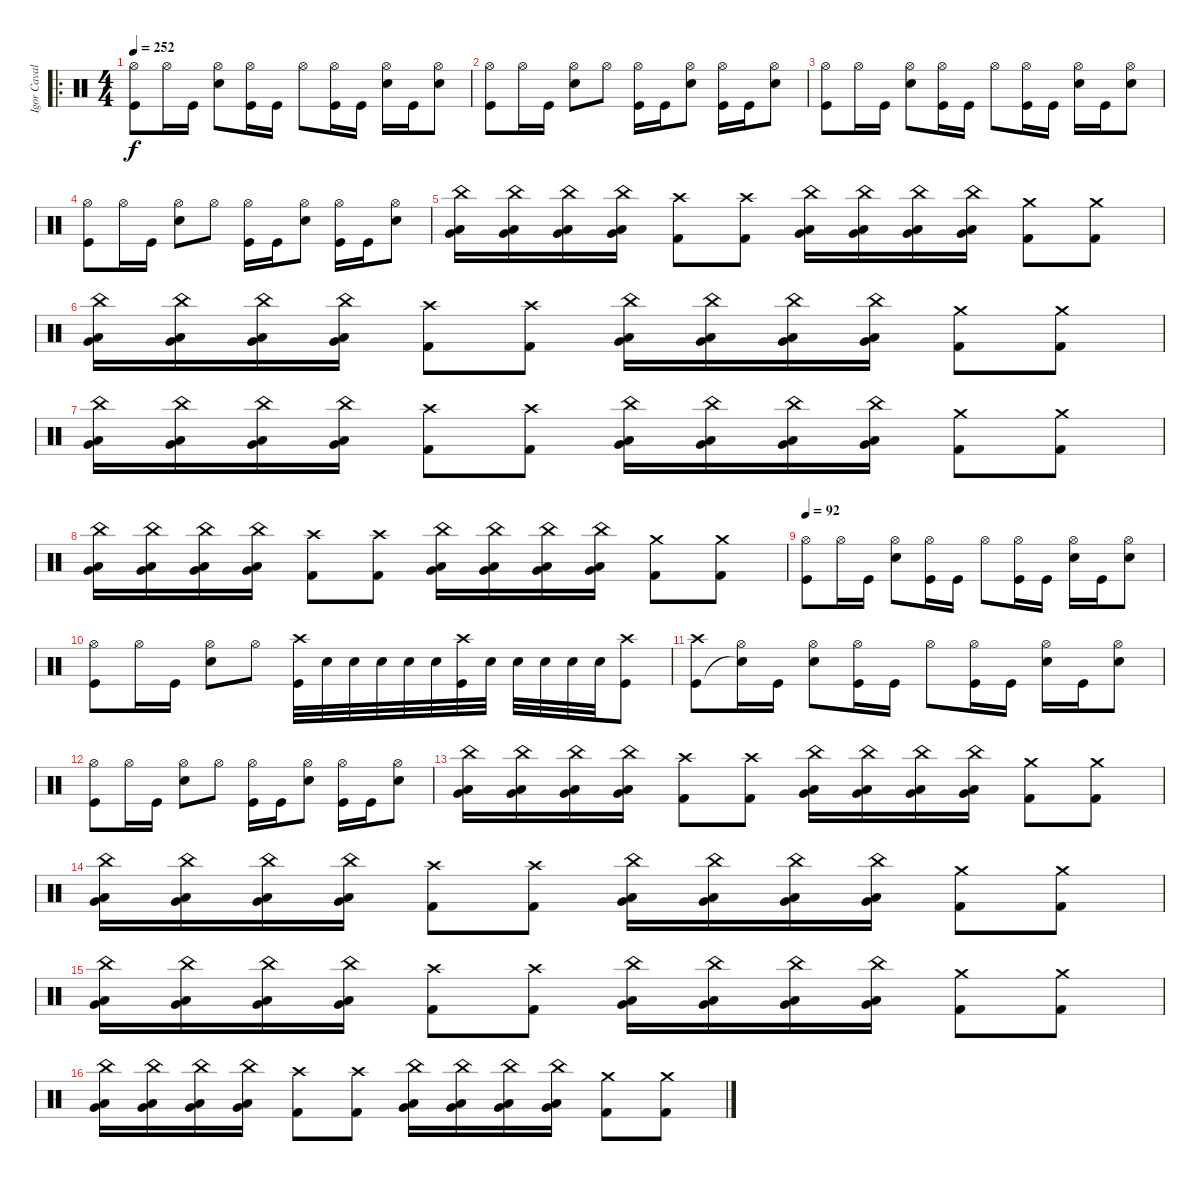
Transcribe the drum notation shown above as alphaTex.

\track ("Igor Cavalera" "Igor Caval") {instrument percussion}
\staff {score}
\articulation defaults
\ro
\ts (4 4)
\tempo 252
\tempo 92
\tempo 252
\clef neutral
\ks c
("Hi-Hat (open)" "Kick (hit)").8{dy f} "Hi-Hat (open)".16 "Kick (hit)".16 ("Hi-Hat (open)" "Electric Snare (hit)").8 ("Hi-Hat (open)" "Kick (hit)").16 "Kick (hit)".16 "Hi-Hat (open)".8 ("Hi-Hat (open)" "Kick (hit)").16 "Kick (hit)".16 ("Hi-Hat (open)" "Electric Snare (hit)").16 "Kick (hit)".16 ("Hi-Hat (open)" "Electric Snare (hit)").8 |
("Hi-Hat (open)" "Kick (hit)").8 "Hi-Hat (open)".16 "Kick (hit)".16 ("Hi-Hat (open)" "Electric Snare (hit)").8 "Hi-Hat (open)".8 ("Hi-Hat (open)" "Kick (hit)").16 "Kick (hit)".16 ("Hi-Hat (open)" "Electric Snare (hit)").8 ("Hi-Hat (open)" "Kick (hit)").16 "Kick (hit)".16 ("Hi-Hat (open)" "Electric Snare (hit)").8 |
("Hi-Hat (open)" "Kick (hit)").8 "Hi-Hat (open)".16 "Kick (hit)".16 ("Hi-Hat (open)" "Electric Snare (hit)").8 ("Hi-Hat (open)" "Kick (hit)").16 "Kick (hit)".16 "Hi-Hat (open)".8 ("Hi-Hat (open)" "Kick (hit)").16 "Kick (hit)".16 ("Hi-Hat (open)" "Electric Snare (hit)").16 "Kick (hit)".16 ("Hi-Hat (open)" "Electric Snare (hit)").8 |
("Hi-Hat (open)" "Kick (hit)").8 "Hi-Hat (open)".16 "Kick (hit)".16 ("Hi-Hat (open)" "Electric Snare (hit)").8 "Hi-Hat (open)".8 ("Hi-Hat (open)" "Kick (hit)").16 "Kick (hit)".16 ("Hi-Hat (open)" "Electric Snare (hit)").8 ("Hi-Hat (open)" "Kick (hit)").16 "Kick (hit)".16 ("Hi-Hat (open)" "Electric Snare (hit)").8 |
("China (hit)" "Low Floor Tom (hit)" "Very Low Tom (hit)").16 ("China (hit)" "Low Floor Tom (hit)" "Very Low Tom (hit)").16 ("China (hit)" "Low Floor Tom (hit)" "Very Low Tom (hit)").16 ("China (hit)" "Low Floor Tom (hit)" "Very Low Tom (hit)").16 ("Crash high (hit)" "Kick (hit) 2").8 ("Crash high (hit)" "Kick (hit) 2").8 ("China (hit)" "Low Tom (hit)" "Very Low Tom (hit)").16 ("China (hit)" "Low Tom (hit)" "Very Low Tom (hit)").16 ("China (hit)" "Low Tom (hit)" "Very Low Tom (hit)").16 ("China (hit)" "Low Tom (hit)" "Very Low Tom (hit)").16 ("Crash medium (hit)" "Kick (hit) 2").8 ("Crash medium (hit)" "Kick (hit) 2").8 |
("China (hit)" "Low Floor Tom (hit)" "Very Low Tom (hit)").16 ("China (hit)" "Low Floor Tom (hit)" "Very Low Tom (hit)").16 ("China (hit)" "Low Floor Tom (hit)" "Very Low Tom (hit)").16 ("China (hit)" "Low Floor Tom (hit)" "Very Low Tom (hit)").16 ("Crash high (hit)" "Kick (hit) 2").8 ("Crash high (hit)" "Kick (hit) 2").8 ("China (hit)" "Low Tom (hit)" "Very Low Tom (hit)").16 ("China (hit)" "Low Tom (hit)" "Very Low Tom (hit)").16 ("China (hit)" "Low Tom (hit)" "Very Low Tom (hit)").16 ("China (hit)" "Low Tom (hit)" "Very Low Tom (hit)").16 ("Crash medium (hit)" "Kick (hit) 2").8 ("Crash medium (hit)" "Kick (hit) 2").8 |
("China (hit)" "Low Floor Tom (hit)" "Very Low Tom (hit)").16 ("China (hit)" "Low Floor Tom (hit)" "Very Low Tom (hit)").16 ("China (hit)" "Low Floor Tom (hit)" "Very Low Tom (hit)").16 ("China (hit)" "Low Floor Tom (hit)" "Very Low Tom (hit)").16 ("Crash high (hit)" "Kick (hit) 2").8 ("Crash high (hit)" "Kick (hit) 2").8 ("China (hit)" "Low Tom (hit)" "Very Low Tom (hit)").16 ("China (hit)" "Low Tom (hit)" "Very Low Tom (hit)").16 ("China (hit)" "Low Tom (hit)" "Very Low Tom (hit)").16 ("China (hit)" "Low Tom (hit)" "Very Low Tom (hit)").16 ("Crash medium (hit)" "Kick (hit) 2").8 ("Crash medium (hit)" "Kick (hit) 2").8 |
("China (hit)" "Low Floor Tom (hit)" "Very Low Tom (hit)").16 ("China (hit)" "Low Floor Tom (hit)" "Very Low Tom (hit)").16 ("China (hit)" "Low Floor Tom (hit)" "Very Low Tom (hit)").16 ("China (hit)" "Low Floor Tom (hit)" "Very Low Tom (hit)").16 ("Crash high (hit)" "Kick (hit) 2").8 ("Crash high (hit)" "Kick (hit) 2").8 ("China (hit)" "Low Tom (hit)" "Very Low Tom (hit)").16 ("China (hit)" "Low Tom (hit)" "Very Low Tom (hit)").16 ("China (hit)" "Low Tom (hit)" "Very Low Tom (hit)").16 ("China (hit)" "Low Tom (hit)" "Very Low Tom (hit)").16 ("Crash medium (hit)" "Kick (hit) 2").8 ("Crash medium (hit)" "Kick (hit) 2").8 |
\tempo 92
("Hi-Hat (open)" "Kick (hit)").8 "Hi-Hat (open)".16 "Kick (hit)".16 ("Hi-Hat (open)" "Electric Snare (hit)").8 ("Hi-Hat (open)" "Kick (hit)").16 "Kick (hit)".16 "Hi-Hat (open)".8 ("Hi-Hat (open)" "Kick (hit)").16 "Kick (hit)".16 ("Hi-Hat (open)" "Electric Snare (hit)").16 "Kick (hit)".16 ("Hi-Hat (open)" "Electric Snare (hit)").8 |
("Hi-Hat (open)" "Kick (hit)").8 "Hi-Hat (open)".16 "Kick (hit)".16 ("Hi-Hat (open)" "Electric Snare (hit)").8 "Hi-Hat (open)".8 ("Crash high (hit)" "Kick (hit)").32 "Electric Snare (hit)".32 "Electric Snare (hit)".32 "Electric Snare (hit)".32 "Electric Snare (hit)".32 "Electric Snare (hit)".32 ("Crash high (hit)" "Kick (hit)").32 "Electric Snare (hit)".32 "Electric Snare (hit)".32 "Electric Snare (hit)".32 "Electric Snare (hit)".32 "Electric Snare (hit)".32 ("Crash high (hit)" "Kick (hit)").8 |
("Crash high (hit)" "Kick (hit)").8 ("Hi-Hat (open)" "Snare (hit)"{t}).16 "Kick (hit)".16 ("Hi-Hat (open)" "Electric Snare (hit)").8 ("Hi-Hat (open)" "Kick (hit)").16 "Kick (hit)".16 "Hi-Hat (open)".8 ("Hi-Hat (open)" "Kick (hit)").16 "Kick (hit)".16 ("Hi-Hat (open)" "Electric Snare (hit)").16 "Kick (hit)".16 ("Hi-Hat (open)" "Electric Snare (hit)").8 |
("Hi-Hat (open)" "Kick (hit)").8 "Hi-Hat (open)".16 "Kick (hit)".16 ("Hi-Hat (open)" "Electric Snare (hit)").8 "Hi-Hat (open)".8 ("Hi-Hat (open)" "Kick (hit)").16 "Kick (hit)".16 ("Hi-Hat (open)" "Electric Snare (hit)").8 ("Hi-Hat (open)" "Kick (hit)").16 "Kick (hit)".16 ("Hi-Hat (open)" "Electric Snare (hit)").8 |
("China (hit)" "Low Floor Tom (hit)" "Very Low Tom (hit)").16 ("China (hit)" "Low Floor Tom (hit)" "Very Low Tom (hit)").16 ("China (hit)" "Low Floor Tom (hit)" "Very Low Tom (hit)").16 ("China (hit)" "Low Floor Tom (hit)" "Very Low Tom (hit)").16 ("Crash high (hit)" "Kick (hit) 2").8 ("Crash high (hit)" "Kick (hit) 2").8 ("China (hit)" "Low Tom (hit)" "Very Low Tom (hit)").16 ("China (hit)" "Low Tom (hit)" "Very Low Tom (hit)").16 ("China (hit)" "Low Tom (hit)" "Very Low Tom (hit)").16 ("China (hit)" "Low Tom (hit)" "Very Low Tom (hit)").16 ("Crash medium (hit)" "Kick (hit) 2").8 ("Crash medium (hit)" "Kick (hit) 2").8 |
("China (hit)" "Low Floor Tom (hit)" "Very Low Tom (hit)").16 ("China (hit)" "Low Floor Tom (hit)" "Very Low Tom (hit)").16 ("China (hit)" "Low Floor Tom (hit)" "Very Low Tom (hit)").16 ("China (hit)" "Low Floor Tom (hit)" "Very Low Tom (hit)").16 ("Crash high (hit)" "Kick (hit) 2").8 ("Crash high (hit)" "Kick (hit) 2").8 ("China (hit)" "Low Tom (hit)" "Very Low Tom (hit)").16 ("China (hit)" "Low Tom (hit)" "Very Low Tom (hit)").16 ("China (hit)" "Low Tom (hit)" "Very Low Tom (hit)").16 ("China (hit)" "Low Tom (hit)" "Very Low Tom (hit)").16 ("Crash medium (hit)" "Kick (hit) 2").8 ("Crash medium (hit)" "Kick (hit) 2").8 |
("China (hit)" "Low Floor Tom (hit)" "Very Low Tom (hit)").16 ("China (hit)" "Low Floor Tom (hit)" "Very Low Tom (hit)").16 ("China (hit)" "Low Floor Tom (hit)" "Very Low Tom (hit)").16 ("China (hit)" "Low Floor Tom (hit)" "Very Low Tom (hit)").16 ("Crash high (hit)" "Kick (hit) 2").8 ("Crash high (hit)" "Kick (hit) 2").8 ("China (hit)" "Low Tom (hit)" "Very Low Tom (hit)").16 ("China (hit)" "Low Tom (hit)" "Very Low Tom (hit)").16 ("China (hit)" "Low Tom (hit)" "Very Low Tom (hit)").16 ("China (hit)" "Low Tom (hit)" "Very Low Tom (hit)").16 ("Crash medium (hit)" "Kick (hit) 2").8 ("Crash medium (hit)" "Kick (hit) 2").8 |
("China (hit)" "Low Floor Tom (hit)" "Very Low Tom (hit)").16 ("China (hit)" "Low Floor Tom (hit)" "Very Low Tom (hit)").16 ("China (hit)" "Low Floor Tom (hit)" "Very Low Tom (hit)").16 ("China (hit)" "Low Floor Tom (hit)" "Very Low Tom (hit)").16 ("Crash high (hit)" "Kick (hit) 2").8 ("Crash high (hit)" "Kick (hit) 2").8 ("China (hit)" "Low Tom (hit)" "Very Low Tom (hit)").16 ("China (hit)" "Low Tom (hit)" "Very Low Tom (hit)").16 ("China (hit)" "Low Tom (hit)" "Very Low Tom (hit)").16 ("China (hit)" "Low Tom (hit)" "Very Low Tom (hit)").16 ("Crash medium (hit)" "Kick (hit) 2").8 ("Crash medium (hit)" "Kick (hit) 2").8
